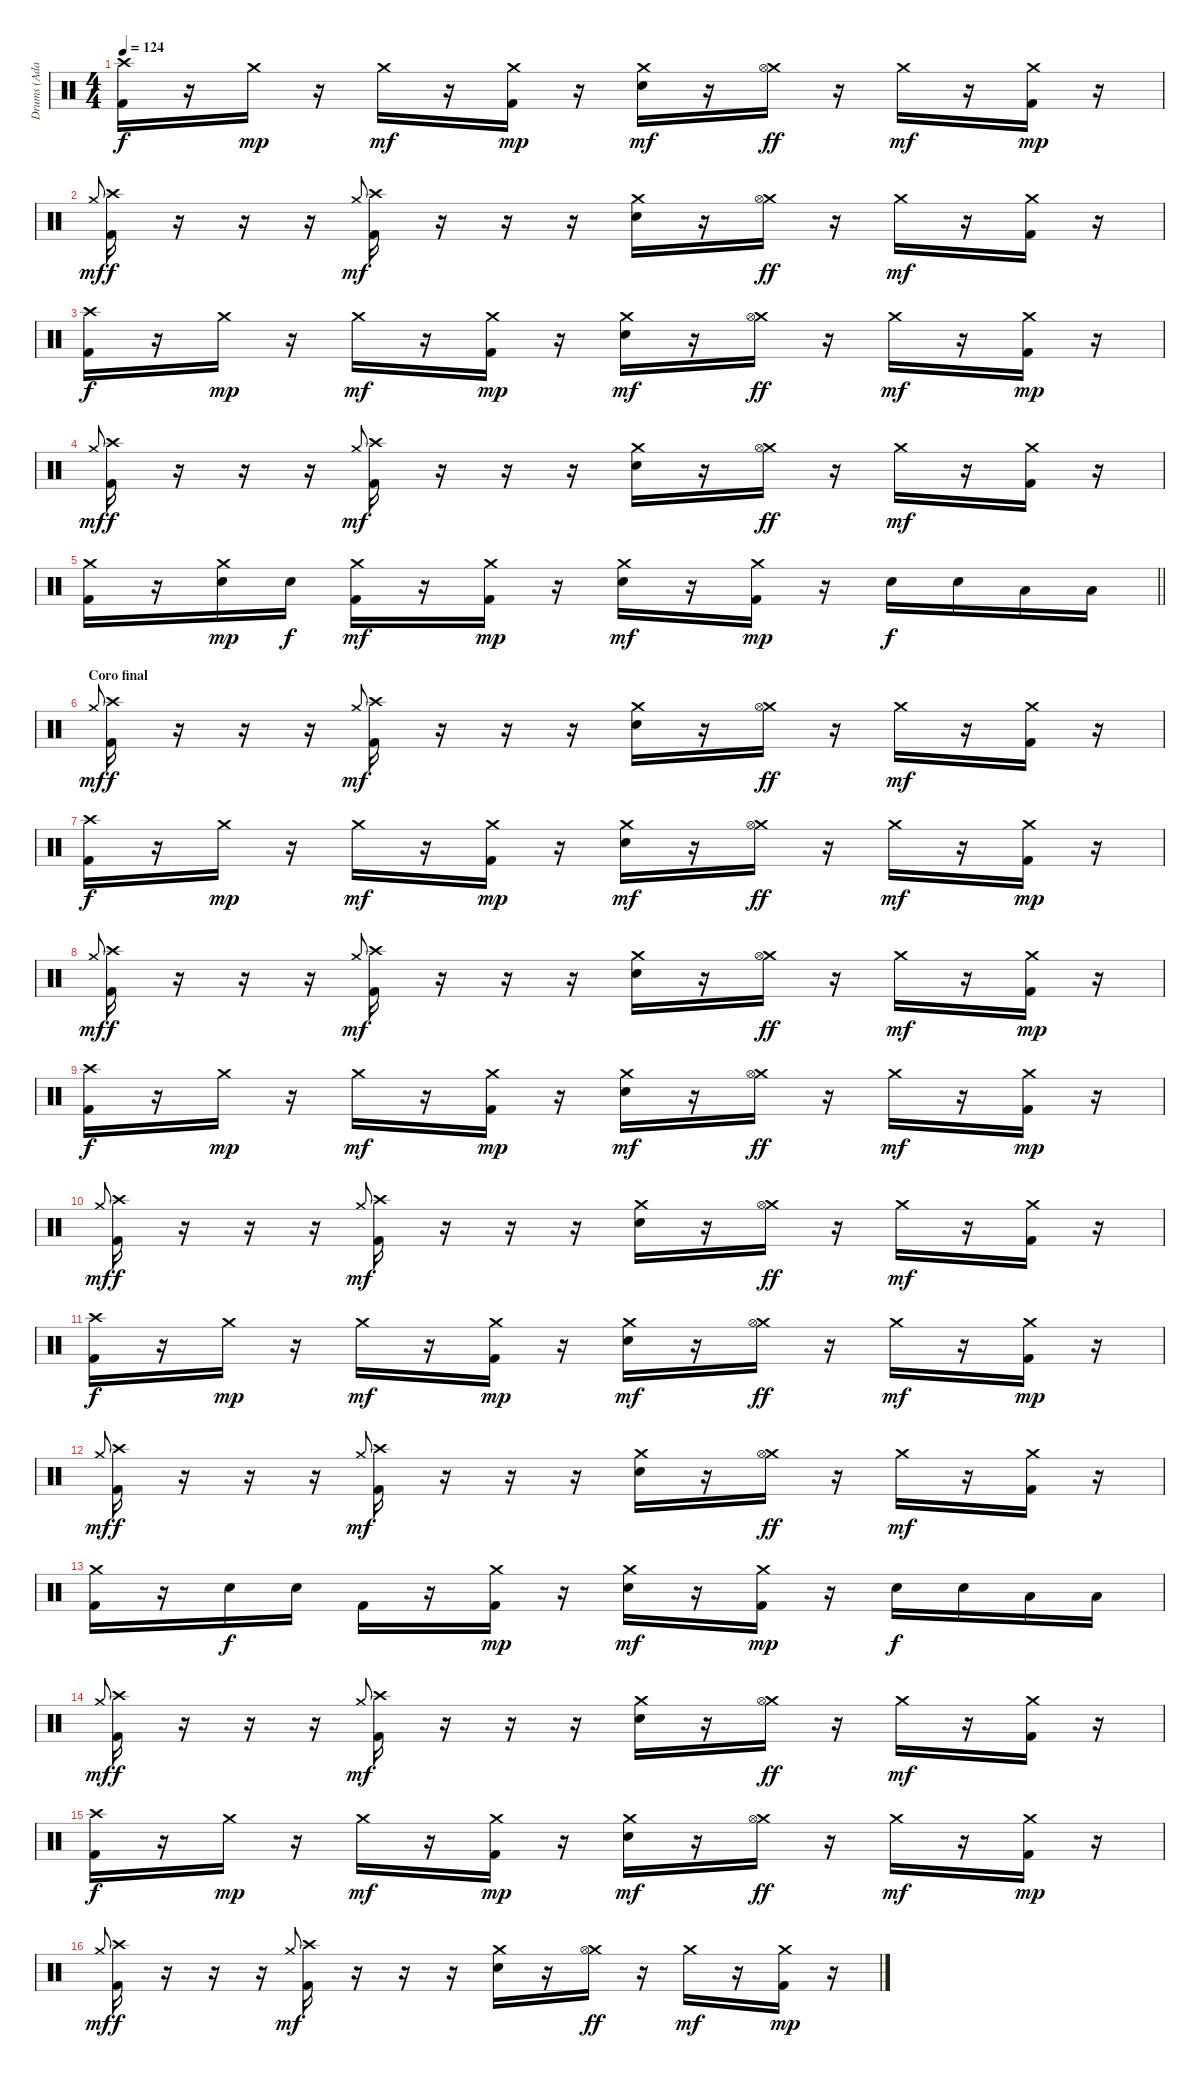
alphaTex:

\track ("Drums (Adam Morgan)" "Drums (Ada") {instrument percussion}
\staff {score}
\articulation defaults
\ts (4 4)
\tempo 124
\clef neutral
\ks c
("Crash high (hit)" "Kick (hit) 2").16{dy f} r.16 "Crash medium (hit)".16{dy mp} r.16 "Crash medium (hit)".16{dy mf} r.16 ("Crash medium (hit)" "Kick (hit) 2").16{dy mp} r.16 ("Crash medium (hit)" "Snare (hit) 2").16{dy mf} r.16 ("Crash medium (hit)" "Hi-Hat (open)").16{dy ff} r.16 "Crash medium (hit)".16{dy mf} r.16 ("Crash medium (hit)" "Kick (hit) 2").16{dy mp} r.16 |
"Crash medium (hit)".8{gr onbeat dy mf} ("Crash high (hit)" "Kick (hit) 2").16{dy f} r.16 r.16 r.16 "Crash medium (hit)".8{gr onbeat dy mf} ("Crash high (hit)" "Kick (hit) 2").16 r.16 r.16 r.16 ("Crash medium (hit)" "Snare (hit) 2").16 r.16 ("Crash medium (hit)" "Hi-Hat (open)").16{dy ff} r.16 "Crash medium (hit)".16{dy mf} r.16 ("Crash medium (hit)" "Kick (hit) 2").16 r.16 |
("Crash high (hit)" "Kick (hit) 2").16{dy f} r.16 "Crash medium (hit)".16{dy mp} r.16 "Crash medium (hit)".16{dy mf} r.16 ("Crash medium (hit)" "Kick (hit) 2").16{dy mp} r.16 ("Crash medium (hit)" "Snare (hit) 2").16{dy mf} r.16 ("Crash medium (hit)" "Hi-Hat (open)").16{dy ff} r.16 "Crash medium (hit)".16{dy mf} r.16 ("Crash medium (hit)" "Kick (hit) 2").16{dy mp} r.16 |
"Crash medium (hit)".8{gr onbeat dy mf} ("Crash high (hit)" "Kick (hit) 2").16{dy f} r.16 r.16 r.16 "Crash medium (hit)".8{gr onbeat dy mf} ("Crash high (hit)" "Kick (hit) 2").16 r.16 r.16 r.16 ("Crash medium (hit)" "Snare (hit) 2").16 r.16 ("Crash medium (hit)" "Hi-Hat (open)").16{dy ff} r.16 "Crash medium (hit)".16{dy mf} r.16 ("Crash medium (hit)" "Kick (hit) 2").16 r.16 |
\barLineRight lightlight
("Crash medium (hit)" "Kick (hit) 2").16 r.16 ("Crash medium (hit)" "Snare (hit) 2").16{dy mp} "Snare (hit) 2".16{dy f} ("Crash medium (hit)" "Kick (hit) 2").16{dy mf} r.16 ("Crash medium (hit)" "Kick (hit) 2").16{dy mp} r.16 ("Crash medium (hit)" "Snare (hit) 2").16{dy mf} r.16 ("Crash medium (hit)" "Kick (hit) 2").16{dy mp} r.16 "Snare (hit) 2".16{dy f} "Snare (hit) 2".16 "Low Tom (hit)".16 "Low Tom (hit)".16 |
\section ("" "Coro final")
"Crash medium (hit)".8{gr onbeat dy mf} ("Crash high (hit)" "Kick (hit) 2").16{dy f} r.16 r.16 r.16 "Crash medium (hit)".8{gr onbeat dy mf} ("Crash high (hit)" "Kick (hit) 2").16 r.16 r.16 r.16 ("Crash medium (hit)" "Snare (hit) 2").16 r.16 ("Crash medium (hit)" "Hi-Hat (open)").16{dy ff} r.16 "Crash medium (hit)".16{dy mf} r.16 ("Crash medium (hit)" "Kick (hit) 2").16 r.16 |
("Crash high (hit)" "Kick (hit) 2").16{dy f} r.16 "Crash medium (hit)".16{dy mp} r.16 "Crash medium (hit)".16{dy mf} r.16 ("Crash medium (hit)" "Kick (hit) 2").16{dy mp} r.16 ("Crash medium (hit)" "Snare (hit) 2").16{dy mf} r.16 ("Crash medium (hit)" "Hi-Hat (open)").16{dy ff} r.16 "Crash medium (hit)".16{dy mf} r.16 ("Crash medium (hit)" "Kick (hit) 2").16{dy mp} r.16 |
"Crash medium (hit)".8{gr onbeat dy mf} ("Crash high (hit)" "Kick (hit) 2").16{dy f} r.16 r.16 r.16 "Crash medium (hit)".8{gr onbeat dy mf} ("Crash high (hit)" "Kick (hit) 2").16 r.16 r.16 r.16 ("Crash medium (hit)" "Snare (hit) 2").16 r.16 ("Crash medium (hit)" "Hi-Hat (open)").16{dy ff} r.16 "Crash medium (hit)".16{dy mf} r.16 ("Crash medium (hit)" "Kick (hit) 2").16{dy mp} r.16 |
("Crash high (hit)" "Kick (hit) 2").16{dy f} r.16 "Crash medium (hit)".16{dy mp} r.16 "Crash medium (hit)".16{dy mf} r.16 ("Crash medium (hit)" "Kick (hit) 2").16{dy mp} r.16 ("Crash medium (hit)" "Snare (hit) 2").16{dy mf} r.16 ("Crash medium (hit)" "Hi-Hat (open)").16{dy ff} r.16 "Crash medium (hit)".16{dy mf} r.16 ("Crash medium (hit)" "Kick (hit) 2").16{dy mp} r.16 |
"Crash medium (hit)".8{gr onbeat dy mf} ("Crash high (hit)" "Kick (hit) 2").16{dy f} r.16 r.16 r.16 "Crash medium (hit)".8{gr onbeat dy mf} ("Crash high (hit)" "Kick (hit) 2").16 r.16 r.16 r.16 ("Crash medium (hit)" "Snare (hit) 2").16 r.16 ("Crash medium (hit)" "Hi-Hat (open)").16{dy ff} r.16 "Crash medium (hit)".16{dy mf} r.16 ("Crash medium (hit)" "Kick (hit) 2").16 r.16 |
("Crash high (hit)" "Kick (hit) 2").16{dy f} r.16 "Crash medium (hit)".16{dy mp} r.16 "Crash medium (hit)".16{dy mf} r.16 ("Crash medium (hit)" "Kick (hit) 2").16{dy mp} r.16 ("Crash medium (hit)" "Snare (hit) 2").16{dy mf} r.16 ("Crash medium (hit)" "Hi-Hat (open)").16{dy ff} r.16 "Crash medium (hit)".16{dy mf} r.16 ("Crash medium (hit)" "Kick (hit) 2").16{dy mp} r.16 |
"Crash medium (hit)".8{gr onbeat dy mf} ("Crash high (hit)" "Kick (hit) 2").16{dy f} r.16 r.16 r.16 "Crash medium (hit)".8{gr onbeat dy mf} ("Crash high (hit)" "Kick (hit) 2").16 r.16 r.16 r.16 ("Crash medium (hit)" "Snare (hit) 2").16 r.16 ("Crash medium (hit)" "Hi-Hat (open)").16{dy ff} r.16 "Crash medium (hit)".16{dy mf} r.16 ("Crash medium (hit)" "Kick (hit) 2").16 r.16 |
("Crash medium (hit)" "Kick (hit) 2").16 r.16 "Snare (hit) 2".16{dy f} "Snare (hit) 2".16 "Kick (hit) 2".16 r.16 ("Crash medium (hit)" "Kick (hit) 2").16{dy mp} r.16 ("Crash medium (hit)" "Snare (hit) 2").16{dy mf} r.16 ("Crash medium (hit)" "Kick (hit) 2").16{dy mp} r.16 "Snare (hit) 2".16{dy f} "Snare (hit) 2".16 "Low Tom (hit)".16 "Low Tom (hit)".16 |
"Crash medium (hit)".8{gr onbeat dy mf} ("Crash high (hit)" "Kick (hit) 2").16{dy f} r.16 r.16 r.16 "Crash medium (hit)".8{gr onbeat dy mf} ("Crash high (hit)" "Kick (hit) 2").16 r.16 r.16 r.16 ("Crash medium (hit)" "Snare (hit) 2").16 r.16 ("Crash medium (hit)" "Hi-Hat (open)").16{dy ff} r.16 "Crash medium (hit)".16{dy mf} r.16 ("Crash medium (hit)" "Kick (hit) 2").16 r.16 |
("Crash high (hit)" "Kick (hit) 2").16{dy f} r.16 "Crash medium (hit)".16{dy mp} r.16 "Crash medium (hit)".16{dy mf} r.16 ("Crash medium (hit)" "Kick (hit) 2").16{dy mp} r.16 ("Crash medium (hit)" "Snare (hit) 2").16{dy mf} r.16 ("Crash medium (hit)" "Hi-Hat (open)").16{dy ff} r.16 "Crash medium (hit)".16{dy mf} r.16 ("Crash medium (hit)" "Kick (hit) 2").16{dy mp} r.16 |
"Crash medium (hit)".8{gr onbeat dy mf} ("Crash high (hit)" "Kick (hit) 2").16{dy f} r.16 r.16 r.16 "Crash medium (hit)".8{gr onbeat dy mf} ("Crash high (hit)" "Kick (hit) 2").16 r.16 r.16 r.16 ("Crash medium (hit)" "Snare (hit) 2").16 r.16 ("Crash medium (hit)" "Hi-Hat (open)").16{dy ff} r.16 "Crash medium (hit)".16{dy mf} r.16 ("Crash medium (hit)" "Kick (hit) 2").16{dy mp} r.16
